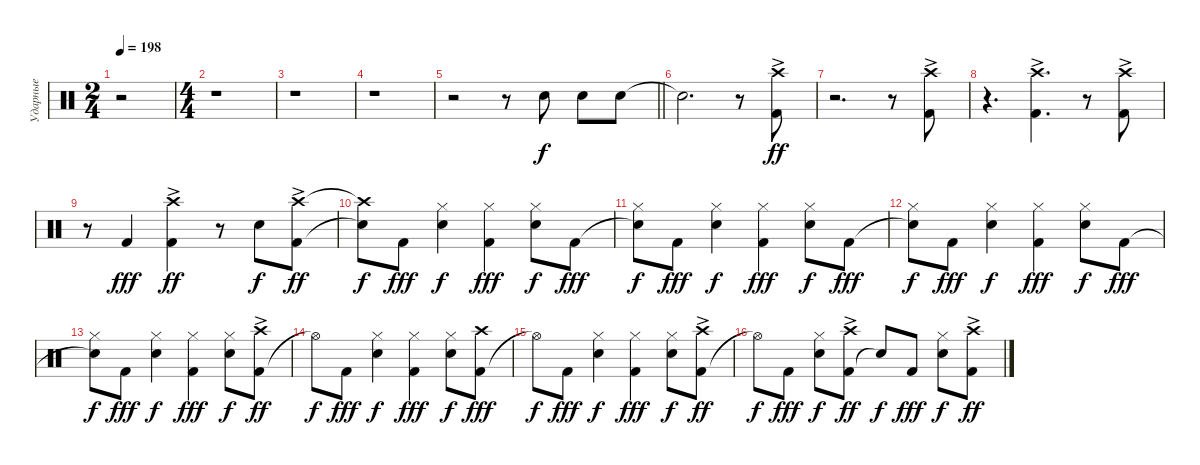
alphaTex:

\track ("Ударные" "Ударные") {instrument percussion}
\staff {score}
\articulation defaults
\ts (2 4)
\tempo 198
\clef neutral
\ks c
r.2{dy f} |
\ts (4 4)
r.1 |
r.1 |
r.1 |
\barLineRight lightlight
r.2 r.8 "Snare (hit) 2".8 "Snare (hit) 2".8 "Snare (hit) 2".8 |
"Snare (hit)"{t}.2{d} r.8 ("Kick (hit) 2" "Crash high (hit)"{ac}).8{dy ff} |
r.2{d} r.8 ("Kick (hit) 2" "Crash high (hit)"{ac}).8 |
r.4{d} ("Kick (hit) 2" "Crash high (hit)"{ac}).4{d} r.8 ("Kick (hit) 2" "Crash high (hit)"{ac}).8 |
r.8 "Kick (hit) 2".4{dy fff} ("Kick (hit) 2" "Crash high (hit)"{ac}).4{dy ff} r.8 "Snare (hit) 2".8{dy f} ("Kick (hit) 2" "Crash high (hit)"{ac}).8{dy ff} |
("Snare (hit)"{t} "Crash high (hit)"{t}).8{dy f} "Kick (hit) 2".8{dy fff} ("Snare (hit) 2" "Hi-Hat (closed)").4{dy f} ("Kick (hit) 2" "Hi-Hat (closed)").4{dy fff} ("Snare (hit) 2" "Hi-Hat (closed)").8{dy f} "Kick (hit) 2".8{dy fff} |
("Snare (hit)"{t} "Hi-Hat (closed)").8{dy f} "Kick (hit) 2".8{dy fff} ("Snare (hit) 2" "Hi-Hat (closed)").4{dy f} ("Kick (hit) 2" "Hi-Hat (closed)").4{dy fff} ("Snare (hit) 2" "Hi-Hat (closed)").8{dy f} "Kick (hit) 2".8{dy fff} |
("Snare (hit)"{t} "Hi-Hat (closed)").8{dy f} "Kick (hit) 2".8{dy fff} ("Snare (hit) 2" "Hi-Hat (closed)").4{dy f} ("Kick (hit) 2" "Hi-Hat (closed)").4{dy fff} ("Snare (hit) 2" "Hi-Hat (closed)").8{dy f} "Kick (hit) 2".8{dy fff} |
("Snare (hit)"{t} "Hi-Hat (closed)").8{dy f} "Kick (hit) 2".8{dy fff} ("Snare (hit) 2" "Hi-Hat (closed)").4{dy f} ("Kick (hit) 2" "Hi-Hat (closed)").4{dy fff} ("Snare (hit) 2" "Hi-Hat (closed)").8{dy f} ("Kick (hit) 2" "Crash high (hit)"{ac}).8{dy ff} |
"Hi-Hat (open)"{t}.8{dy f} "Kick (hit) 2".8{dy fff} ("Snare (hit) 2" "Hi-Hat (closed)").4{dy f} ("Kick (hit) 2" "Hi-Hat (closed)").4{dy fff} ("Snare (hit) 2" "Hi-Hat (closed)").8{dy f} ("Kick (hit) 2" "Crash high (hit)").8{dy fff} |
"Hi-Hat (open)"{t}.8{dy f} "Kick (hit) 2".8{dy fff} ("Snare (hit) 2" "Hi-Hat (closed)").4{dy f} ("Kick (hit) 2" "Hi-Hat (closed)").4{dy fff} ("Snare (hit) 2" "Hi-Hat (closed)").8{dy f} ("Kick (hit) 2" "Crash high (hit)"{ac}).8{dy ff} |
"Hi-Hat (open)"{t}.8{dy f} "Kick (hit) 2".8{dy fff} ("Snare (hit) 2" "Hi-Hat (closed)").8{dy f} ("Kick (hit) 2" "Crash high (hit)"{ac}).8{dy ff} "Snare (hit)"{t}.8{dy f} "Kick (hit) 2".8{dy fff} ("Snare (hit) 2" "Hi-Hat (closed)").8{dy f} ("Kick (hit) 2" "Crash high (hit)"{ac}).8{dy ff}
